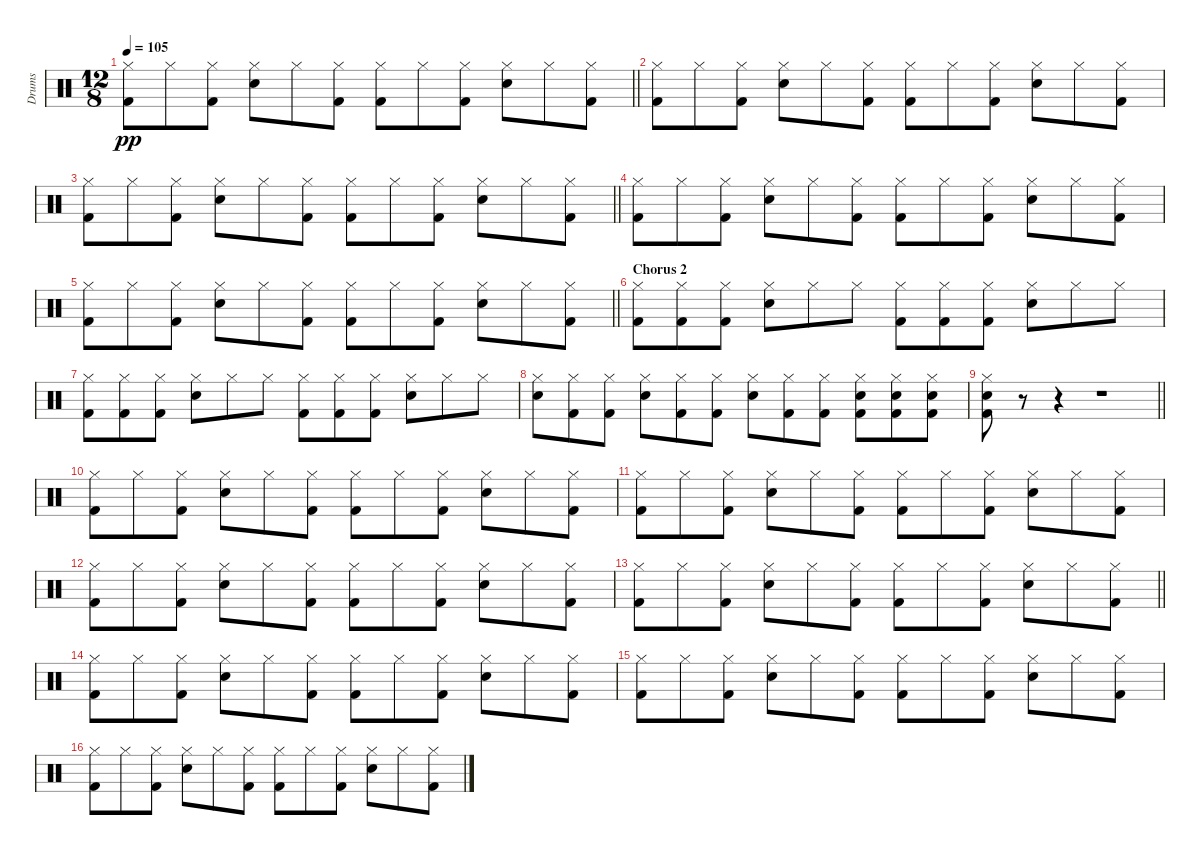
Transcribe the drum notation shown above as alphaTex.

\track ("Drums" "Drums") {instrument percussion}
\staff
\articulation defaults
\ts (12 8)
\tempo 105
\clef neutral
\barLineRight lightlight
\ks c
("Hi-Hat (closed)" "Kick (hit) 2").8{dy pp} "Hi-Hat (closed)".8 ("Hi-Hat (closed)" "Kick (hit) 2").8 ("Hi-Hat (closed)" "Snare (hit) 2").8 "Hi-Hat (closed)".8 ("Hi-Hat (closed)" "Kick (hit) 2").8 ("Hi-Hat (closed)" "Kick (hit) 2").8 "Hi-Hat (closed)".8 ("Hi-Hat (closed)" "Kick (hit) 2").8 ("Hi-Hat (closed)" "Snare (hit) 2").8 "Hi-Hat (closed)".8 ("Hi-Hat (closed)" "Kick (hit) 2").8 |
("Hi-Hat (closed)" "Kick (hit) 2").8 "Hi-Hat (closed)".8 ("Hi-Hat (closed)" "Kick (hit) 2").8 ("Hi-Hat (closed)" "Snare (hit) 2").8 "Hi-Hat (closed)".8 ("Hi-Hat (closed)" "Kick (hit) 2").8 ("Hi-Hat (closed)" "Kick (hit) 2").8 "Hi-Hat (closed)".8 ("Hi-Hat (closed)" "Kick (hit) 2").8 ("Hi-Hat (closed)" "Snare (hit) 2").8 "Hi-Hat (closed)".8 ("Hi-Hat (closed)" "Kick (hit) 2").8 |
\barLineRight lightlight
("Hi-Hat (closed)" "Kick (hit) 2").8 "Hi-Hat (closed)".8 ("Hi-Hat (closed)" "Kick (hit) 2").8 ("Hi-Hat (closed)" "Snare (hit) 2").8 "Hi-Hat (closed)".8 ("Hi-Hat (closed)" "Kick (hit) 2").8 ("Hi-Hat (closed)" "Kick (hit) 2").8 "Hi-Hat (closed)".8 ("Hi-Hat (closed)" "Kick (hit) 2").8 ("Hi-Hat (closed)" "Snare (hit) 2").8 "Hi-Hat (closed)".8 ("Hi-Hat (closed)" "Kick (hit) 2").8 |
("Hi-Hat (closed)" "Kick (hit) 2").8 "Hi-Hat (closed)".8 ("Hi-Hat (closed)" "Kick (hit) 2").8 ("Hi-Hat (closed)" "Snare (hit) 2").8 "Hi-Hat (closed)".8 ("Hi-Hat (closed)" "Kick (hit) 2").8 ("Hi-Hat (closed)" "Kick (hit) 2").8 "Hi-Hat (closed)".8 ("Hi-Hat (closed)" "Kick (hit) 2").8 ("Hi-Hat (closed)" "Snare (hit) 2").8 "Hi-Hat (closed)".8 ("Hi-Hat (closed)" "Kick (hit) 2").8 |
\barLineRight lightlight
("Hi-Hat (closed)" "Kick (hit) 2").8 "Hi-Hat (closed)".8 ("Hi-Hat (closed)" "Kick (hit) 2").8 ("Hi-Hat (closed)" "Snare (hit) 2").8 "Hi-Hat (closed)".8 ("Hi-Hat (closed)" "Kick (hit) 2").8 ("Hi-Hat (closed)" "Kick (hit) 2").8 "Hi-Hat (closed)".8 ("Hi-Hat (closed)" "Kick (hit) 2").8 ("Hi-Hat (closed)" "Snare (hit) 2").8 "Hi-Hat (closed)".8 ("Hi-Hat (closed)" "Kick (hit) 2").8 |
\section ("" "Chorus 2")
("Hi-Hat (closed)" "Kick (hit) 2").8 ("Hi-Hat (closed)" "Kick (hit) 2").8 ("Hi-Hat (closed)" "Kick (hit) 2").8 ("Hi-Hat (closed)" "Snare (hit) 2").8 "Hi-Hat (closed)".8 "Hi-Hat (closed)".8 ("Hi-Hat (closed)" "Kick (hit) 2").8 ("Hi-Hat (closed)" "Kick (hit) 2").8 ("Hi-Hat (closed)" "Kick (hit) 2").8 ("Hi-Hat (closed)" "Snare (hit) 2").8 "Hi-Hat (closed)".8 "Hi-Hat (closed)".8 |
("Hi-Hat (closed)" "Kick (hit) 2").8 ("Hi-Hat (closed)" "Kick (hit) 2").8 ("Hi-Hat (closed)" "Kick (hit) 2").8 ("Hi-Hat (closed)" "Snare (hit) 2").8 "Hi-Hat (closed)".8 "Hi-Hat (closed)".8 ("Hi-Hat (closed)" "Kick (hit) 2").8 ("Hi-Hat (closed)" "Kick (hit) 2").8 ("Hi-Hat (closed)" "Kick (hit) 2").8 ("Hi-Hat (closed)" "Snare (hit) 2").8 "Hi-Hat (closed)".8 "Hi-Hat (closed)".8 |
("Hi-Hat (closed)" "Snare (hit) 2").8 ("Hi-Hat (closed)" "Kick (hit) 2").8 ("Hi-Hat (closed)" "Kick (hit) 2").8 ("Hi-Hat (closed)" "Snare (hit) 2").8 ("Hi-Hat (closed)" "Kick (hit) 2").8 ("Hi-Hat (closed)" "Kick (hit) 2").8 ("Hi-Hat (closed)" "Snare (hit) 2").8 ("Hi-Hat (closed)" "Kick (hit) 2").8 ("Hi-Hat (closed)" "Kick (hit) 2").8 ("Hi-Hat (closed)" "Snare (hit) 2" "Kick (hit) 2").8 ("Hi-Hat (closed)" "Snare (hit) 2" "Kick (hit) 2").8 ("Hi-Hat (closed)" "Snare (hit) 2" "Kick (hit) 2").8 |
\barLineRight lightlight
("Hi-Hat (closed)" "Snare (hit) 2" "Kick (hit) 2").8 r.8 r.4 r.1 |
("Hi-Hat (closed)" "Kick (hit) 2").8 "Hi-Hat (closed)".8 ("Hi-Hat (closed)" "Kick (hit) 2").8 ("Hi-Hat (closed)" "Snare (hit) 2").8 "Hi-Hat (closed)".8 ("Hi-Hat (closed)" "Kick (hit) 2").8 ("Hi-Hat (closed)" "Kick (hit) 2").8 "Hi-Hat (closed)".8 ("Hi-Hat (closed)" "Kick (hit) 2").8 ("Hi-Hat (closed)" "Snare (hit) 2").8 "Hi-Hat (closed)".8 ("Hi-Hat (closed)" "Kick (hit) 2").8 |
("Hi-Hat (closed)" "Kick (hit) 2").8 "Hi-Hat (closed)".8 ("Hi-Hat (closed)" "Kick (hit) 2").8 ("Hi-Hat (closed)" "Snare (hit) 2").8 "Hi-Hat (closed)".8 ("Hi-Hat (closed)" "Kick (hit) 2").8 ("Hi-Hat (closed)" "Kick (hit) 2").8 "Hi-Hat (closed)".8 ("Hi-Hat (closed)" "Kick (hit) 2").8 ("Hi-Hat (closed)" "Snare (hit) 2").8 "Hi-Hat (closed)".8 ("Hi-Hat (closed)" "Kick (hit) 2").8 |
("Hi-Hat (closed)" "Kick (hit) 2").8 "Hi-Hat (closed)".8 ("Hi-Hat (closed)" "Kick (hit) 2").8 ("Hi-Hat (closed)" "Snare (hit) 2").8 "Hi-Hat (closed)".8 ("Hi-Hat (closed)" "Kick (hit) 2").8 ("Hi-Hat (closed)" "Kick (hit) 2").8 "Hi-Hat (closed)".8 ("Hi-Hat (closed)" "Kick (hit) 2").8 ("Hi-Hat (closed)" "Snare (hit) 2").8 "Hi-Hat (closed)".8 ("Hi-Hat (closed)" "Kick (hit) 2").8 |
\barLineRight lightlight
("Hi-Hat (closed)" "Kick (hit) 2").8 "Hi-Hat (closed)".8 ("Hi-Hat (closed)" "Kick (hit) 2").8 ("Hi-Hat (closed)" "Snare (hit) 2").8 "Hi-Hat (closed)".8 ("Hi-Hat (closed)" "Kick (hit) 2").8 ("Hi-Hat (closed)" "Kick (hit) 2").8 "Hi-Hat (closed)".8 ("Hi-Hat (closed)" "Kick (hit) 2").8 ("Hi-Hat (closed)" "Snare (hit) 2").8 "Hi-Hat (closed)".8 ("Hi-Hat (closed)" "Kick (hit) 2").8 |
("Hi-Hat (closed)" "Kick (hit) 2").8 "Hi-Hat (closed)".8 ("Hi-Hat (closed)" "Kick (hit) 2").8 ("Hi-Hat (closed)" "Snare (hit) 2").8 "Hi-Hat (closed)".8 ("Hi-Hat (closed)" "Kick (hit) 2").8 ("Hi-Hat (closed)" "Kick (hit) 2").8 "Hi-Hat (closed)".8 ("Hi-Hat (closed)" "Kick (hit) 2").8 ("Hi-Hat (closed)" "Snare (hit) 2").8 "Hi-Hat (closed)".8 ("Hi-Hat (closed)" "Kick (hit) 2").8 |
("Hi-Hat (closed)" "Kick (hit) 2").8 "Hi-Hat (closed)".8 ("Hi-Hat (closed)" "Kick (hit) 2").8 ("Hi-Hat (closed)" "Snare (hit) 2").8 "Hi-Hat (closed)".8 ("Hi-Hat (closed)" "Kick (hit) 2").8 ("Hi-Hat (closed)" "Kick (hit) 2").8 "Hi-Hat (closed)".8 ("Hi-Hat (closed)" "Kick (hit) 2").8 ("Hi-Hat (closed)" "Snare (hit) 2").8 "Hi-Hat (closed)".8 ("Hi-Hat (closed)" "Kick (hit) 2").8 |
("Hi-Hat (closed)" "Kick (hit) 2").8 "Hi-Hat (closed)".8 ("Hi-Hat (closed)" "Kick (hit) 2").8 ("Hi-Hat (closed)" "Snare (hit) 2").8 "Hi-Hat (closed)".8 ("Hi-Hat (closed)" "Kick (hit) 2").8 ("Hi-Hat (closed)" "Kick (hit) 2").8 "Hi-Hat (closed)".8 ("Hi-Hat (closed)" "Kick (hit) 2").8 ("Hi-Hat (closed)" "Snare (hit) 2").8 "Hi-Hat (closed)".8 ("Hi-Hat (closed)" "Kick (hit) 2").8
